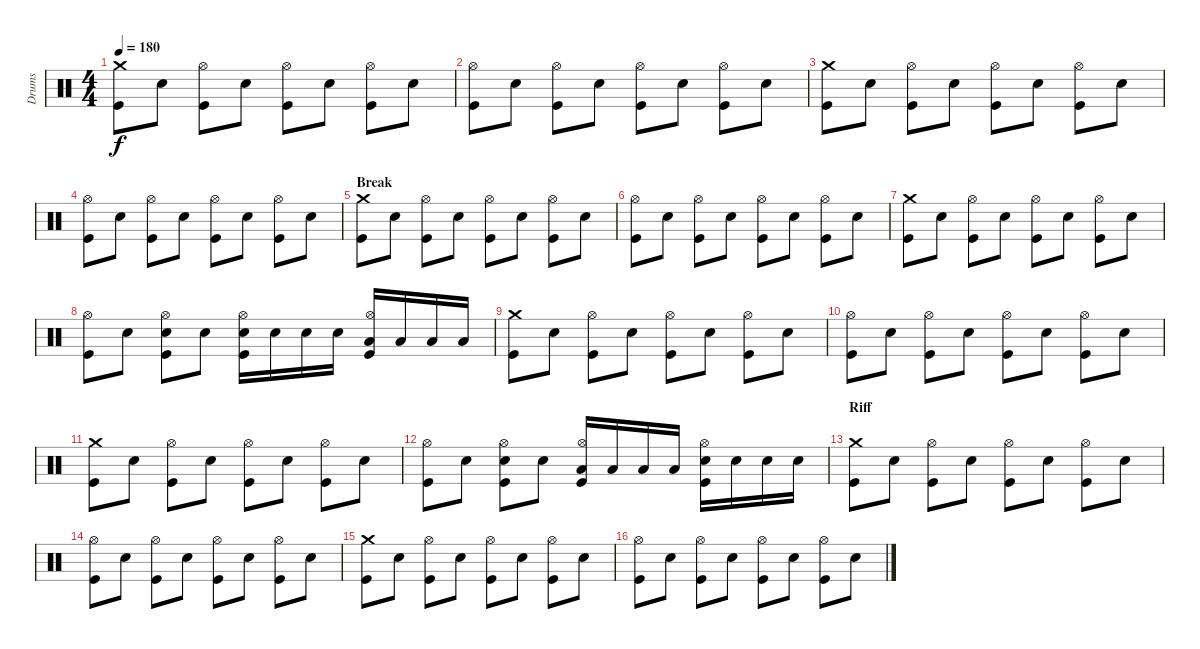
\track ("Drums" "Drums") {instrument percussion}
\staff {score}
\articulation defaults
\ts (4 4)
\tempo 180
\clef neutral
\ks c
("Crash medium (hit)" "Kick (hit)").8{dy f} "Snare (hit) 2".8 ("Hi-Hat (open)" "Kick (hit)").8 "Snare (hit) 2".8 ("Hi-Hat (open)" "Kick (hit)").8 "Snare (hit) 2".8 ("Hi-Hat (open)" "Kick (hit)").8 "Snare (hit) 2".8 |
("Hi-Hat (open)" "Kick (hit)").8 "Snare (hit) 2".8 ("Hi-Hat (open)" "Kick (hit)").8 "Snare (hit) 2".8 ("Hi-Hat (open)" "Kick (hit)").8 "Snare (hit) 2".8 ("Hi-Hat (open)" "Kick (hit)").8 "Snare (hit) 2".8 |
("Crash medium (hit)" "Kick (hit)").8 "Snare (hit) 2".8 ("Hi-Hat (open)" "Kick (hit)").8 "Snare (hit) 2".8 ("Hi-Hat (open)" "Kick (hit)").8 "Snare (hit) 2".8 ("Hi-Hat (open)" "Kick (hit)").8 "Snare (hit) 2".8 |
("Hi-Hat (open)" "Kick (hit)").8 "Snare (hit) 2".8 ("Hi-Hat (open)" "Kick (hit)").8 "Snare (hit) 2".8 ("Hi-Hat (open)" "Kick (hit)").8 "Snare (hit) 2".8 ("Hi-Hat (open)" "Kick (hit)").8 "Snare (hit) 2".8 |
\section ("" "Break")
("Crash medium (hit)" "Kick (hit)").8 "Snare (hit) 2".8 ("Hi-Hat (open)" "Kick (hit)").8 "Snare (hit) 2".8 ("Hi-Hat (open)" "Kick (hit)").8 "Snare (hit) 2".8 ("Hi-Hat (open)" "Kick (hit)").8 "Snare (hit) 2".8 |
("Hi-Hat (open)" "Kick (hit)").8 "Snare (hit) 2".8 ("Hi-Hat (open)" "Kick (hit)").8 "Snare (hit) 2".8 ("Hi-Hat (open)" "Kick (hit)").8 "Snare (hit) 2".8 ("Hi-Hat (open)" "Kick (hit)").8 "Snare (hit) 2".8 |
("Crash medium (hit)" "Kick (hit)").8 "Snare (hit) 2".8 ("Hi-Hat (open)" "Kick (hit)").8 "Snare (hit) 2".8 ("Hi-Hat (open)" "Kick (hit)").8 "Snare (hit) 2".8 ("Hi-Hat (open)" "Kick (hit)").8 "Snare (hit) 2".8 |
("Hi-Hat (open)" "Kick (hit)").8 "Snare (hit) 2".8 ("Hi-Hat (open)" "Snare (hit) 2" "Kick (hit)").8 "Snare (hit) 2".8 ("Hi-Hat (open)" "Snare (hit) 2" "Kick (hit)").16 "Snare (hit) 2".16 "Snare (hit) 2".16 "Snare (hit) 2".16 ("Hi-Hat (open)" "Low Tom (hit)" "Kick (hit)").16 "Low Tom (hit)".16 "Low Tom (hit)".16 "Low Tom (hit)".16 |
("Crash medium (hit)" "Kick (hit)").8 "Snare (hit) 2".8 ("Hi-Hat (open)" "Kick (hit)").8 "Snare (hit) 2".8 ("Hi-Hat (open)" "Kick (hit)").8 "Snare (hit) 2".8 ("Hi-Hat (open)" "Kick (hit)").8 "Snare (hit) 2".8 |
("Hi-Hat (open)" "Kick (hit)").8 "Snare (hit) 2".8 ("Hi-Hat (open)" "Kick (hit)").8 "Snare (hit) 2".8 ("Hi-Hat (open)" "Kick (hit)").8 "Snare (hit) 2".8 ("Hi-Hat (open)" "Kick (hit)").8 "Snare (hit) 2".8 |
("Crash medium (hit)" "Kick (hit)").8 "Snare (hit) 2".8 ("Hi-Hat (open)" "Kick (hit)").8 "Snare (hit) 2".8 ("Hi-Hat (open)" "Kick (hit)").8 "Snare (hit) 2".8 ("Hi-Hat (open)" "Kick (hit)").8 "Snare (hit) 2".8 |
("Hi-Hat (open)" "Kick (hit)").8 "Snare (hit) 2".8 ("Hi-Hat (open)" "Snare (hit) 2" "Kick (hit)").8 "Snare (hit) 2".8 ("Hi-Hat (open)" "Low Tom (hit)" "Kick (hit)").16 "Low Tom (hit)".16 "Low Tom (hit)".16 "Low Tom (hit)".16 ("Hi-Hat (open)" "Snare (hit) 2" "Kick (hit)").16 "Snare (hit) 2".16 "Snare (hit) 2".16 "Snare (hit) 2".16 |
\section ("" "Riff")
("Crash medium (hit)" "Kick (hit)").8 "Snare (hit) 2".8 ("Hi-Hat (open)" "Kick (hit)").8 "Snare (hit) 2".8 ("Hi-Hat (open)" "Kick (hit)").8 "Snare (hit) 2".8 ("Hi-Hat (open)" "Kick (hit)").8 "Snare (hit) 2".8 |
("Hi-Hat (open)" "Kick (hit)").8 "Snare (hit) 2".8 ("Hi-Hat (open)" "Kick (hit)").8 "Snare (hit) 2".8 ("Hi-Hat (open)" "Kick (hit)").8 "Snare (hit) 2".8 ("Hi-Hat (open)" "Kick (hit)").8 "Snare (hit) 2".8 |
("Crash medium (hit)" "Kick (hit)").8 "Snare (hit) 2".8 ("Hi-Hat (open)" "Kick (hit)").8 "Snare (hit) 2".8 ("Hi-Hat (open)" "Kick (hit)").8 "Snare (hit) 2".8 ("Hi-Hat (open)" "Kick (hit)").8 "Snare (hit) 2".8 |
("Hi-Hat (open)" "Kick (hit)").8 "Snare (hit) 2".8 ("Hi-Hat (open)" "Kick (hit)").8 "Snare (hit) 2".8 ("Hi-Hat (open)" "Kick (hit)").8 "Snare (hit) 2".8 ("Hi-Hat (open)" "Kick (hit)").8 "Snare (hit) 2".8
